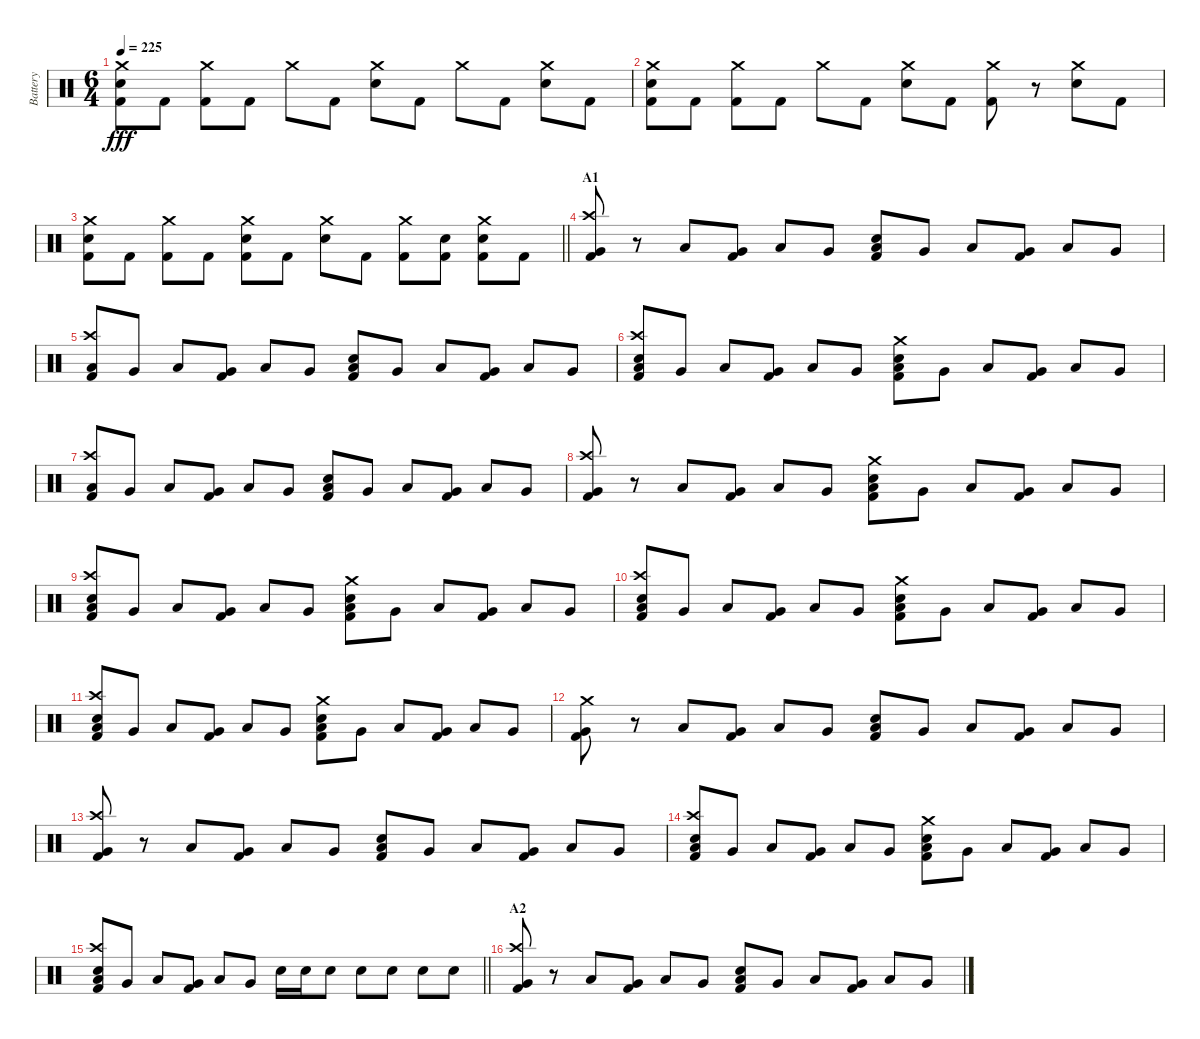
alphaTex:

\track ("Battery" "Battery") {instrument percussion}
\staff {score}
\articulation defaults
\ts (6 4)
\tempo 225
\clef neutral
\ks c
("Crash medium (hit)" "Electric Snare (hit)" "Kick (hit) 2").8{dy fff} "Kick (hit) 2".8 ("Crash medium (hit)" "Kick (hit) 2").8 "Kick (hit) 2".8 "Crash medium (hit)".8 "Kick (hit) 2".8 ("Crash medium (hit)" "Electric Snare (hit)").8 "Kick (hit) 2".8 "Crash medium (hit)".8 "Kick (hit) 2".8 ("Crash medium (hit)" "Electric Snare (hit)").8 "Kick (hit) 2".8 |
("Crash medium (hit)" "Electric Snare (hit)" "Kick (hit) 2").8 "Kick (hit) 2".8 ("Crash medium (hit)" "Kick (hit) 2").8 "Kick (hit) 2".8 "Crash medium (hit)".8 "Kick (hit) 2".8 ("Crash medium (hit)" "Electric Snare (hit)").8 "Kick (hit) 2".8 ("Crash medium (hit)" "Kick (hit) 2").8 r.8 ("Crash medium (hit)" "Electric Snare (hit)").8 "Kick (hit) 2".8 |
\barLineRight lightlight
("Crash medium (hit)" "Electric Snare (hit)" "Kick (hit) 2").8 "Kick (hit) 2".8 ("Crash medium (hit)" "Kick (hit) 2").8 "Kick (hit) 2".8 ("Crash medium (hit)" "Electric Snare (hit)" "Kick (hit) 2").8 "Kick (hit) 2".8 ("Crash medium (hit)" "Electric Snare (hit)").8 "Kick (hit) 2".8 ("Crash medium (hit)" "Kick (hit) 2").8 ("Electric Snare (hit)" "Kick (hit) 2").8 ("Crash medium (hit)" "Electric Snare (hit)" "Kick (hit) 2").8 "Kick (hit) 2".8 |
\section ("" "A1")
("Crash high (hit)" "Very Low Tom (hit)" "Kick (hit) 2").8 r.8 "Low Tom (hit)".8 ("Very Low Tom (hit)" "Kick (hit) 2").8 "Low Tom (hit)".8 "Very Low Tom (hit)".8 ("Low Tom (hit)" "Electric Snare (hit)" "Kick (hit) 2").8 "Very Low Tom (hit)".8 "Low Tom (hit)".8 ("Very Low Tom (hit)" "Kick (hit) 2").8 "Low Tom (hit)".8 "Very Low Tom (hit)".8 |
("Crash high (hit)" "Low Tom (hit)" "Kick (hit) 2").8 "Very Low Tom (hit)".8 "Low Tom (hit)".8 ("Very Low Tom (hit)" "Kick (hit) 2").8 "Low Tom (hit)".8 "Very Low Tom (hit)".8 ("Low Tom (hit)" "Electric Snare (hit)" "Kick (hit) 2").8 "Very Low Tom (hit)".8 "Low Tom (hit)".8 ("Very Low Tom (hit)" "Kick (hit) 2").8 "Low Tom (hit)".8 "Very Low Tom (hit)".8 |
("Crash high (hit)" "Low Tom (hit)" "Electric Snare (hit)" "Kick (hit) 2").8 "Very Low Tom (hit)".8 "Low Tom (hit)".8 ("Very Low Tom (hit)" "Kick (hit) 2").8 "Low Tom (hit)".8 "Very Low Tom (hit)".8 ("Crash medium (hit)" "Low Tom (hit)" "Electric Snare (hit)" "Kick (hit) 2").8 "Very Low Tom (hit)".8 "Low Tom (hit)".8 ("Very Low Tom (hit)" "Kick (hit) 2").8 "Low Tom (hit)".8 "Very Low Tom (hit)".8 |
("Crash high (hit)" "Low Tom (hit)" "Kick (hit) 2").8 "Very Low Tom (hit)".8 "Low Tom (hit)".8 ("Very Low Tom (hit)" "Kick (hit) 2").8 "Low Tom (hit)".8 "Very Low Tom (hit)".8 ("Low Tom (hit)" "Electric Snare (hit)" "Kick (hit) 2").8 "Very Low Tom (hit)".8 "Low Tom (hit)".8 ("Very Low Tom (hit)" "Kick (hit) 2").8 "Low Tom (hit)".8 "Very Low Tom (hit)".8 |
("Crash high (hit)" "Very Low Tom (hit)" "Kick (hit) 2").8 r.8 "Low Tom (hit)".8 ("Very Low Tom (hit)" "Kick (hit) 2").8 "Low Tom (hit)".8 "Very Low Tom (hit)".8 ("Crash medium (hit)" "Low Tom (hit)" "Electric Snare (hit)" "Kick (hit) 2").8 "Very Low Tom (hit)".8 "Low Tom (hit)".8 ("Very Low Tom (hit)" "Kick (hit) 2").8 "Low Tom (hit)".8 "Very Low Tom (hit)".8 |
("Crash high (hit)" "Low Tom (hit)" "Electric Snare (hit)" "Kick (hit) 2").8 "Very Low Tom (hit)".8 "Low Tom (hit)".8 ("Very Low Tom (hit)" "Kick (hit) 2").8 "Low Tom (hit)".8 "Very Low Tom (hit)".8 ("Crash medium (hit)" "Low Tom (hit)" "Electric Snare (hit)" "Kick (hit) 2").8 "Very Low Tom (hit)".8 "Low Tom (hit)".8 ("Very Low Tom (hit)" "Kick (hit) 2").8 "Low Tom (hit)".8 "Very Low Tom (hit)".8 |
("Crash high (hit)" "Low Tom (hit)" "Electric Snare (hit)" "Kick (hit) 2").8 "Very Low Tom (hit)".8 "Low Tom (hit)".8 ("Very Low Tom (hit)" "Kick (hit) 2").8 "Low Tom (hit)".8 "Very Low Tom (hit)".8 ("Crash medium (hit)" "Low Tom (hit)" "Electric Snare (hit)" "Kick (hit) 2").8 "Very Low Tom (hit)".8 "Low Tom (hit)".8 ("Very Low Tom (hit)" "Kick (hit) 2").8 "Low Tom (hit)".8 "Very Low Tom (hit)".8 |
("Crash high (hit)" "Low Tom (hit)" "Electric Snare (hit)" "Kick (hit) 2").8 "Very Low Tom (hit)".8 "Low Tom (hit)".8 ("Very Low Tom (hit)" "Kick (hit) 2").8 "Low Tom (hit)".8 "Very Low Tom (hit)".8 ("Crash medium (hit)" "Low Tom (hit)" "Electric Snare (hit)" "Kick (hit) 2").8 "Very Low Tom (hit)".8 "Low Tom (hit)".8 ("Very Low Tom (hit)" "Kick (hit) 2").8 "Low Tom (hit)".8 "Very Low Tom (hit)".8 |
("Crash medium (hit)" "Very Low Tom (hit)" "Kick (hit) 2").8 r.8 "Low Tom (hit)".8 ("Very Low Tom (hit)" "Kick (hit) 2").8 "Low Tom (hit)".8 "Very Low Tom (hit)".8 ("Low Tom (hit)" "Electric Snare (hit)" "Kick (hit) 2").8 "Very Low Tom (hit)".8 "Low Tom (hit)".8 ("Very Low Tom (hit)" "Kick (hit) 2").8 "Low Tom (hit)".8 "Very Low Tom (hit)".8 |
("Crash high (hit)" "Very Low Tom (hit)" "Kick (hit) 2").8 r.8 "Low Tom (hit)".8 ("Very Low Tom (hit)" "Kick (hit) 2").8 "Low Tom (hit)".8 "Very Low Tom (hit)".8 ("Low Tom (hit)" "Electric Snare (hit)" "Kick (hit) 2").8 "Very Low Tom (hit)".8 "Low Tom (hit)".8 ("Very Low Tom (hit)" "Kick (hit) 2").8 "Low Tom (hit)".8 "Very Low Tom (hit)".8 |
("Crash high (hit)" "Low Tom (hit)" "Electric Snare (hit)" "Kick (hit) 2").8 "Very Low Tom (hit)".8 "Low Tom (hit)".8 ("Very Low Tom (hit)" "Kick (hit) 2").8 "Low Tom (hit)".8 "Very Low Tom (hit)".8 ("Crash medium (hit)" "Low Tom (hit)" "Electric Snare (hit)" "Kick (hit) 2").8 "Very Low Tom (hit)".8 "Low Tom (hit)".8 ("Very Low Tom (hit)" "Kick (hit) 2").8 "Low Tom (hit)".8 "Very Low Tom (hit)".8 |
\barLineRight lightlight
("Crash high (hit)" "Low Tom (hit)" "Electric Snare (hit)" "Kick (hit) 2").8 "Very Low Tom (hit)".8 "Low Tom (hit)".8 ("Very Low Tom (hit)" "Kick (hit) 2").8 "Low Tom (hit)".8 "Very Low Tom (hit)".8 "Electric Snare (hit)".16 "Electric Snare (hit)".16 "Electric Snare (hit)".8 "Electric Snare (hit)".8 "Electric Snare (hit)".8 "Electric Snare (hit)".8 "Electric Snare (hit)".8 |
\section ("" "A2")
("Crash high (hit)" "Very Low Tom (hit)" "Kick (hit) 2").8 r.8 "Low Tom (hit)".8 ("Very Low Tom (hit)" "Kick (hit) 2").8 "Low Tom (hit)".8 "Very Low Tom (hit)".8 ("Low Tom (hit)" "Electric Snare (hit)" "Kick (hit) 2").8 "Very Low Tom (hit)".8 "Low Tom (hit)".8 ("Very Low Tom (hit)" "Kick (hit) 2").8 "Low Tom (hit)".8 "Very Low Tom (hit)".8
